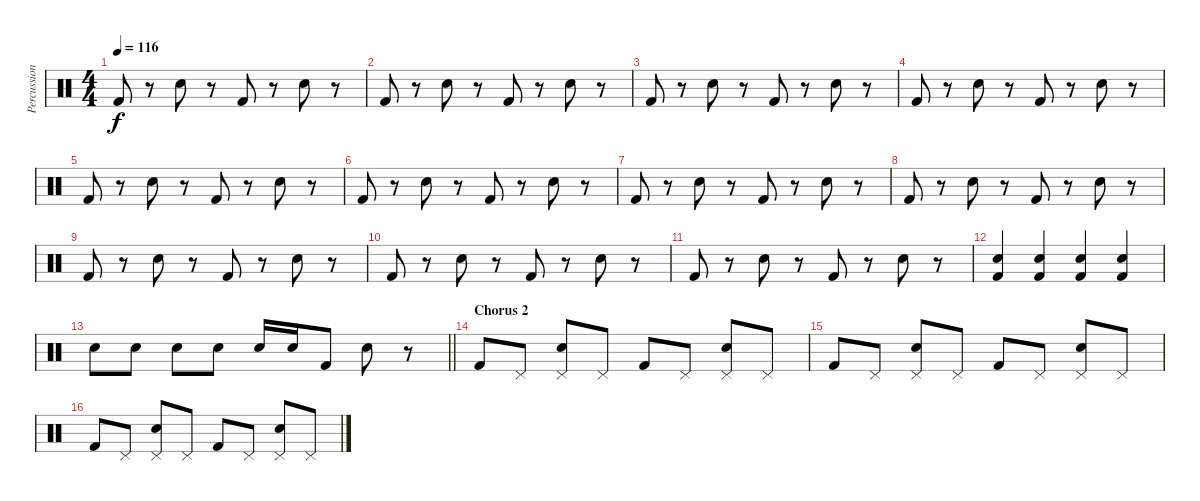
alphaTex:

\track ("Percussion" "Percussion") {instrument percussion}
\staff {score}
\articulation defaults
\ts (4 4)
\tempo 116
\clef neutral
\ks c "Kick (hit) 2".8{dy f}
r.8 "Snare (hit) 2".8 r.8 "Kick (hit) 2".8 r.8 "Snare (hit) 2".8 r.8 |
"Kick (hit) 2".8 r.8 "Snare (hit) 2".8 r.8 "Kick (hit) 2".8 r.8 "Snare (hit) 2".8 r.8 |
"Kick (hit) 2".8 r.8 "Snare (hit) 2".8 r.8 "Kick (hit) 2".8 r.8 "Snare (hit) 2".8 r.8 |
"Kick (hit) 2".8 r.8 "Snare (hit) 2".8 r.8 "Kick (hit) 2".8 r.8 "Snare (hit) 2".8 r.8 |
"Kick (hit) 2".8 r.8 "Snare (hit) 2".8 r.8 "Kick (hit) 2".8 r.8 "Snare (hit) 2".8 r.8 |
"Kick (hit) 2".8 r.8 "Snare (hit) 2".8 r.8 "Kick (hit) 2".8 r.8 "Snare (hit) 2".8 r.8 |
"Kick (hit) 2".8 r.8 "Snare (hit) 2".8 r.8 "Kick (hit) 2".8 r.8 "Snare (hit) 2".8 r.8 |
"Kick (hit) 2".8 r.8 "Snare (hit) 2".8 r.8 "Kick (hit) 2".8 r.8 "Snare (hit) 2".8 r.8 |
"Kick (hit) 2".8 r.8 "Snare (hit) 2".8 r.8 "Kick (hit) 2".8 r.8 "Snare (hit) 2".8 r.8 |
"Kick (hit) 2".8 r.8 "Snare (hit) 2".8 r.8 "Kick (hit) 2".8 r.8 "Snare (hit) 2".8 r.8 |
"Kick (hit) 2".8 r.8 "Snare (hit) 2".8 r.8 "Kick (hit) 2".8 r.8 "Snare (hit) 2".8 r.8 |
("Snare (hit) 2" "Kick (hit) 2").4 ("Snare (hit) 2" "Kick (hit) 2").4 ("Snare (hit) 2" "Kick (hit) 2").4 ("Snare (hit) 2" "Kick (hit) 2").4 |
\barLineRight lightlight "Snare (hit) 2".8 "Snare (hit) 2".8 "Snare (hit) 2".8 "Snare (hit) 2".8 "Snare (hit) 2".16 "Snare (hit) 2".16 "Kick (hit) 2".8 "Snare (hit) 2".8
r.8 |
\section ("" "Chorus 2")
"Kick (hit) 2".8 "Pedal Hi-Hat (hit)".8 ("Pedal Hi-Hat (hit)" "Snare (hit) 2").8 "Pedal Hi-Hat (hit)".8 "Kick (hit) 2".8 "Pedal Hi-Hat (hit)".8 ("Pedal Hi-Hat (hit)" "Snare (hit) 2").8 "Pedal Hi-Hat (hit)".8 |
"Kick (hit) 2".8 "Pedal Hi-Hat (hit)".8 ("Pedal Hi-Hat (hit)" "Snare (hit) 2").8 "Pedal Hi-Hat (hit)".8 "Kick (hit) 2".8 "Pedal Hi-Hat (hit)".8 ("Pedal Hi-Hat (hit)" "Snare (hit) 2").8 "Pedal Hi-Hat (hit)".8 |
"Kick (hit) 2".8 "Pedal Hi-Hat (hit)".8 ("Pedal Hi-Hat (hit)" "Snare (hit) 2").8 "Pedal Hi-Hat (hit)".8 "Kick (hit) 2".8 "Pedal Hi-Hat (hit)".8 ("Pedal Hi-Hat (hit)" "Snare (hit) 2").8 "Pedal Hi-Hat (hit)".8
